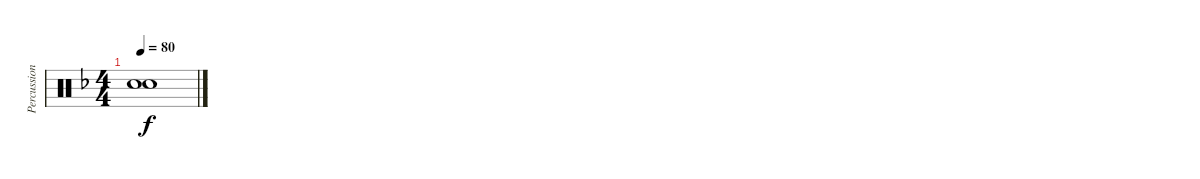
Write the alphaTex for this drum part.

\track ("Percussion" "Percussion") {instrument percussion}
\staff {score}
\articulation defaults
\ts (4 4)
\tempo 80
\clef neutral
\ks f
("Snare (hit)"{t} "Snare (hit)"{t}).1{dy f}
